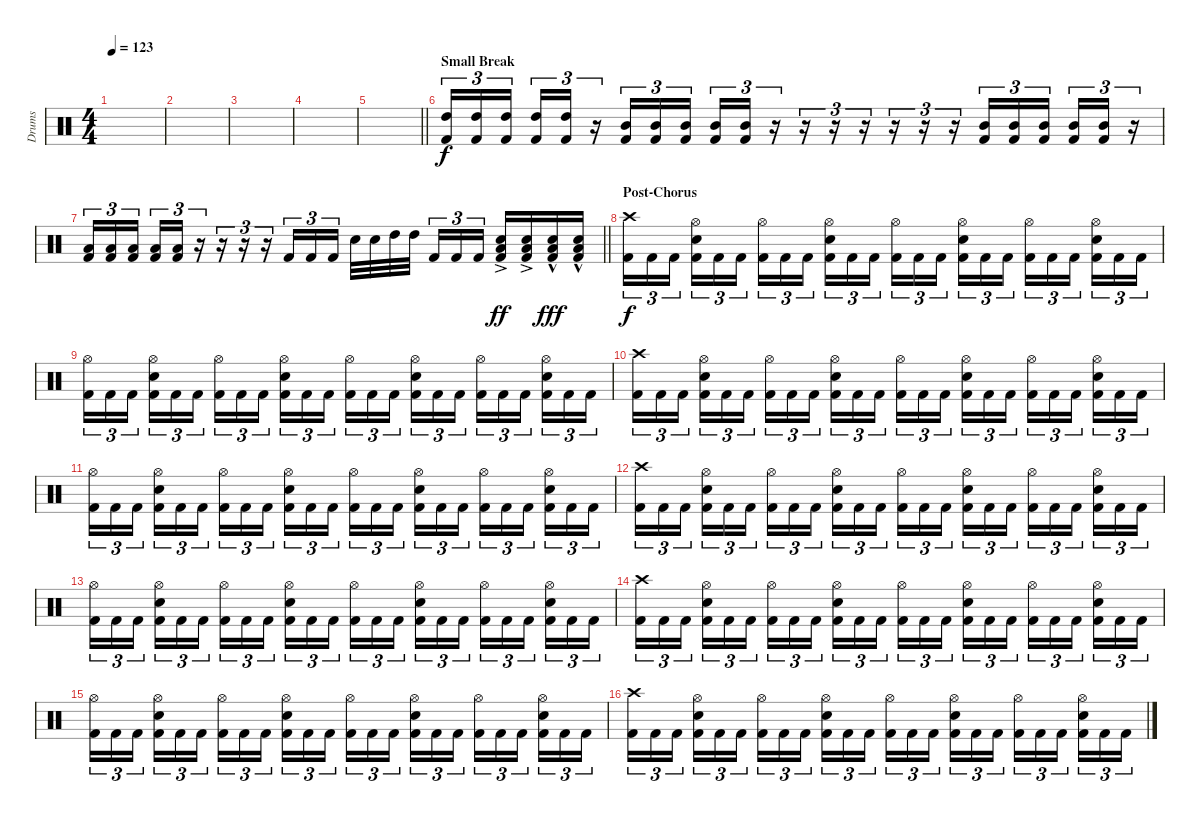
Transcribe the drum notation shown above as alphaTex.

\track ("Drums" "Drums") {instrument percussion}
\staff {score}
\articulation defaults
\ts (4 4)
\tempo 123
\clef neutral
\ks c
|
|
|
|
\barLineRight lightlight
|
\section ("" "Small Break")
("High Tom (hit)" "Kick (hit) 2").16{tu (3 2)} ("High Tom (hit)" "Kick (hit) 2").16{tu (3 2)} ("High Tom (hit)" "Kick (hit) 2").16{tu (3 2) beam splitsecondary} ("High Tom (hit)" "Kick (hit) 2").16{tu (3 2)} ("High Tom (hit)" "Kick (hit) 2").16{tu (3 2)} r.16{tu (3 2)} ("Mid Tom (hit)" "Kick (hit) 2").16{tu (3 2)} ("Mid Tom (hit)" "Kick (hit) 2").16{tu (3 2)} ("Mid Tom (hit)" "Kick (hit) 2").16{tu (3 2) beam splitsecondary} ("Mid Tom (hit)" "Kick (hit) 2").16{tu (3 2)} ("Mid Tom (hit)" "Kick (hit) 2").16{tu (3 2)} r.16{tu (3 2)} r.16{tu (3 2)} r.16{tu (3 2)} r.16{tu (3 2)} r.16{tu (3 2)} r.16{tu (3 2)} r.16{tu (3 2)} ("Mid Tom (hit)" "Kick (hit) 2").16{tu (3 2)} ("Mid Tom (hit)" "Kick (hit) 2").16{tu (3 2)} ("Mid Tom (hit)" "Kick (hit) 2").16{tu (3 2) beam splitsecondary} ("Mid Tom (hit)" "Kick (hit) 2").16{tu (3 2)} ("Mid Tom (hit)" "Kick (hit) 2").16{tu (3 2)} r.16{tu (3 2)} |
\barLineRight lightlight
("Low Tom (hit)" "Kick (hit) 2").16{tu (3 2)} ("Low Tom (hit)" "Kick (hit) 2").16{tu (3 2)} ("Low Tom (hit)" "Kick (hit) 2").16{tu (3 2) beam splitsecondary} ("Low Tom (hit)" "Kick (hit) 2").16{tu (3 2)} ("Low Tom (hit)" "Kick (hit) 2").16{tu (3 2)} r.16{tu (3 2)} r.16{tu (3 2)} r.16{tu (3 2)} r.16{tu (3 2)} "Kick (hit) 2".16{tu (3 2)} "Kick (hit) 2".16{tu (3 2)} "Kick (hit) 2".16{tu (3 2)} "Snare (hit) 2".32 "Snare (hit) 2".32 "High Tom (hit)".32 "High Tom (hit)".32{beam splitsecondary} "Kick (hit) 2".16{tu (3 2)} "Kick (hit) 2".16{tu (3 2)} "Kick (hit) 2".16{tu (3 2)} ("Low Tom (hit)"{ac} "Snare (hit) 2"{ac} "Kick (hit) 2").16{dy ff} ("Low Tom (hit)"{ac} "Snare (hit) 2"{ac} "Kick (hit) 2").16 ("Low Tom (hit)"{hac} "Snare (hit) 2"{hac} "Kick (hit) 2").16{dy fff} ("Low Tom (hit)"{hac} "Snare (hit) 2"{hac} "Kick (hit) 2").16 |
\section ("" "Post-Chorus")
("Crash high (hit)" "Kick (hit) 2").16{tu (3 2) dy f} "Kick (hit) 2".16{tu (3 2)} "Kick (hit) 2".16{tu (3 2) beam splitsecondary} ("Hi-Hat (open)" "Snare (hit) 2" "Kick (hit) 2").16{tu (3 2)} "Kick (hit) 2".16{tu (3 2)} "Kick (hit) 2".16{tu (3 2)} ("Hi-Hat (open)" "Kick (hit) 2").16{tu (3 2)} "Kick (hit) 2".16{tu (3 2)} "Kick (hit) 2".16{tu (3 2) beam splitsecondary} ("Hi-Hat (open)" "Snare (hit) 2" "Kick (hit) 2").16{tu (3 2)} "Kick (hit) 2".16{tu (3 2)} "Kick (hit) 2".16{tu (3 2)} ("Hi-Hat (open)" "Kick (hit) 2").16{tu (3 2)} "Kick (hit) 2".16{tu (3 2)} "Kick (hit) 2".16{tu (3 2) beam splitsecondary} ("Hi-Hat (open)" "Snare (hit) 2" "Kick (hit) 2").16{tu (3 2)} "Kick (hit) 2".16{tu (3 2)} "Kick (hit) 2".16{tu (3 2)} ("Hi-Hat (open)" "Kick (hit) 2").16{tu (3 2)} "Kick (hit) 2".16{tu (3 2)} "Kick (hit) 2".16{tu (3 2) beam splitsecondary} ("Hi-Hat (open)" "Snare (hit) 2" "Kick (hit) 2").16{tu (3 2)} "Kick (hit) 2".16{tu (3 2)} "Kick (hit) 2".16{tu (3 2)} |
("Hi-Hat (open)" "Kick (hit) 2").16{tu (3 2)} "Kick (hit) 2".16{tu (3 2)} "Kick (hit) 2".16{tu (3 2) beam splitsecondary} ("Hi-Hat (open)" "Snare (hit) 2" "Kick (hit) 2").16{tu (3 2)} "Kick (hit) 2".16{tu (3 2)} "Kick (hit) 2".16{tu (3 2)} ("Hi-Hat (open)" "Kick (hit) 2").16{tu (3 2)} "Kick (hit) 2".16{tu (3 2)} "Kick (hit) 2".16{tu (3 2) beam splitsecondary} ("Hi-Hat (open)" "Snare (hit) 2" "Kick (hit) 2").16{tu (3 2)} "Kick (hit) 2".16{tu (3 2)} "Kick (hit) 2".16{tu (3 2)} ("Hi-Hat (open)" "Kick (hit) 2").16{tu (3 2)} "Kick (hit) 2".16{tu (3 2)} "Kick (hit) 2".16{tu (3 2) beam splitsecondary} ("Hi-Hat (open)" "Snare (hit) 2" "Kick (hit) 2").16{tu (3 2)} "Kick (hit) 2".16{tu (3 2)} "Kick (hit) 2".16{tu (3 2)} ("Hi-Hat (open)" "Kick (hit) 2").16{tu (3 2)} "Kick (hit) 2".16{tu (3 2)} "Kick (hit) 2".16{tu (3 2) beam splitsecondary} ("Hi-Hat (open)" "Snare (hit) 2" "Kick (hit) 2").16{tu (3 2)} "Kick (hit) 2".16{tu (3 2)} "Kick (hit) 2".16{tu (3 2)} |
("Crash high (hit)" "Kick (hit) 2").16{tu (3 2)} "Kick (hit) 2".16{tu (3 2)} "Kick (hit) 2".16{tu (3 2) beam splitsecondary} ("Hi-Hat (open)" "Snare (hit) 2" "Kick (hit) 2").16{tu (3 2)} "Kick (hit) 2".16{tu (3 2)} "Kick (hit) 2".16{tu (3 2)} ("Hi-Hat (open)" "Kick (hit) 2").16{tu (3 2)} "Kick (hit) 2".16{tu (3 2)} "Kick (hit) 2".16{tu (3 2) beam splitsecondary} ("Hi-Hat (open)" "Snare (hit) 2" "Kick (hit) 2").16{tu (3 2)} "Kick (hit) 2".16{tu (3 2)} "Kick (hit) 2".16{tu (3 2)} ("Hi-Hat (open)" "Kick (hit) 2").16{tu (3 2)} "Kick (hit) 2".16{tu (3 2)} "Kick (hit) 2".16{tu (3 2) beam splitsecondary} ("Hi-Hat (open)" "Snare (hit) 2" "Kick (hit) 2").16{tu (3 2)} "Kick (hit) 2".16{tu (3 2)} "Kick (hit) 2".16{tu (3 2)} ("Hi-Hat (open)" "Kick (hit) 2").16{tu (3 2)} "Kick (hit) 2".16{tu (3 2)} "Kick (hit) 2".16{tu (3 2) beam splitsecondary} ("Hi-Hat (open)" "Snare (hit) 2" "Kick (hit) 2").16{tu (3 2)} "Kick (hit) 2".16{tu (3 2)} "Kick (hit) 2".16{tu (3 2)} |
("Hi-Hat (open)" "Kick (hit) 2").16{tu (3 2)} "Kick (hit) 2".16{tu (3 2)} "Kick (hit) 2".16{tu (3 2) beam splitsecondary} ("Hi-Hat (open)" "Snare (hit) 2" "Kick (hit) 2").16{tu (3 2)} "Kick (hit) 2".16{tu (3 2)} "Kick (hit) 2".16{tu (3 2)} ("Hi-Hat (open)" "Kick (hit) 2").16{tu (3 2)} "Kick (hit) 2".16{tu (3 2)} "Kick (hit) 2".16{tu (3 2) beam splitsecondary} ("Hi-Hat (open)" "Snare (hit) 2" "Kick (hit) 2").16{tu (3 2)} "Kick (hit) 2".16{tu (3 2)} "Kick (hit) 2".16{tu (3 2)} ("Hi-Hat (open)" "Kick (hit) 2").16{tu (3 2)} "Kick (hit) 2".16{tu (3 2)} "Kick (hit) 2".16{tu (3 2) beam splitsecondary} ("Hi-Hat (open)" "Snare (hit) 2" "Kick (hit) 2").16{tu (3 2)} "Kick (hit) 2".16{tu (3 2)} "Kick (hit) 2".16{tu (3 2)} ("Hi-Hat (open)" "Kick (hit) 2").16{tu (3 2)} "Kick (hit) 2".16{tu (3 2)} "Kick (hit) 2".16{tu (3 2) beam splitsecondary} ("Hi-Hat (open)" "Snare (hit) 2" "Kick (hit) 2").16{tu (3 2)} "Kick (hit) 2".16{tu (3 2)} "Kick (hit) 2".16{tu (3 2)} |
("Crash high (hit)" "Kick (hit) 2").16{tu (3 2)} "Kick (hit) 2".16{tu (3 2)} "Kick (hit) 2".16{tu (3 2) beam splitsecondary} ("Hi-Hat (open)" "Snare (hit) 2" "Kick (hit) 2").16{tu (3 2)} "Kick (hit) 2".16{tu (3 2)} "Kick (hit) 2".16{tu (3 2)} ("Hi-Hat (open)" "Kick (hit) 2").16{tu (3 2)} "Kick (hit) 2".16{tu (3 2)} "Kick (hit) 2".16{tu (3 2) beam splitsecondary} ("Hi-Hat (open)" "Snare (hit) 2" "Kick (hit) 2").16{tu (3 2)} "Kick (hit) 2".16{tu (3 2)} "Kick (hit) 2".16{tu (3 2)} ("Hi-Hat (open)" "Kick (hit) 2").16{tu (3 2)} "Kick (hit) 2".16{tu (3 2)} "Kick (hit) 2".16{tu (3 2) beam splitsecondary} ("Hi-Hat (open)" "Snare (hit) 2" "Kick (hit) 2").16{tu (3 2)} "Kick (hit) 2".16{tu (3 2)} "Kick (hit) 2".16{tu (3 2)} ("Hi-Hat (open)" "Kick (hit) 2").16{tu (3 2)} "Kick (hit) 2".16{tu (3 2)} "Kick (hit) 2".16{tu (3 2) beam splitsecondary} ("Hi-Hat (open)" "Snare (hit) 2" "Kick (hit) 2").16{tu (3 2)} "Kick (hit) 2".16{tu (3 2)} "Kick (hit) 2".16{tu (3 2)} |
("Hi-Hat (open)" "Kick (hit) 2").16{tu (3 2)} "Kick (hit) 2".16{tu (3 2)} "Kick (hit) 2".16{tu (3 2) beam splitsecondary} ("Hi-Hat (open)" "Snare (hit) 2" "Kick (hit) 2").16{tu (3 2)} "Kick (hit) 2".16{tu (3 2)} "Kick (hit) 2".16{tu (3 2)} ("Hi-Hat (open)" "Kick (hit) 2").16{tu (3 2)} "Kick (hit) 2".16{tu (3 2)} "Kick (hit) 2".16{tu (3 2) beam splitsecondary} ("Hi-Hat (open)" "Snare (hit) 2" "Kick (hit) 2").16{tu (3 2)} "Kick (hit) 2".16{tu (3 2)} "Kick (hit) 2".16{tu (3 2)} ("Hi-Hat (open)" "Kick (hit) 2").16{tu (3 2)} "Kick (hit) 2".16{tu (3 2)} "Kick (hit) 2".16{tu (3 2) beam splitsecondary} ("Hi-Hat (open)" "Snare (hit) 2" "Kick (hit) 2").16{tu (3 2)} "Kick (hit) 2".16{tu (3 2)} "Kick (hit) 2".16{tu (3 2)} ("Hi-Hat (open)" "Kick (hit) 2").16{tu (3 2)} "Kick (hit) 2".16{tu (3 2)} "Kick (hit) 2".16{tu (3 2) beam splitsecondary} ("Hi-Hat (open)" "Snare (hit) 2" "Kick (hit) 2").16{tu (3 2)} "Kick (hit) 2".16{tu (3 2)} "Kick (hit) 2".16{tu (3 2)} |
("Crash high (hit)" "Kick (hit) 2").16{tu (3 2)} "Kick (hit) 2".16{tu (3 2)} "Kick (hit) 2".16{tu (3 2) beam splitsecondary} ("Hi-Hat (open)" "Snare (hit) 2" "Kick (hit) 2").16{tu (3 2)} "Kick (hit) 2".16{tu (3 2)} "Kick (hit) 2".16{tu (3 2)} ("Hi-Hat (open)" "Kick (hit) 2").16{tu (3 2)} "Kick (hit) 2".16{tu (3 2)} "Kick (hit) 2".16{tu (3 2) beam splitsecondary} ("Hi-Hat (open)" "Snare (hit) 2" "Kick (hit) 2").16{tu (3 2)} "Kick (hit) 2".16{tu (3 2)} "Kick (hit) 2".16{tu (3 2)} ("Hi-Hat (open)" "Kick (hit) 2").16{tu (3 2)} "Kick (hit) 2".16{tu (3 2)} "Kick (hit) 2".16{tu (3 2) beam splitsecondary} ("Hi-Hat (open)" "Snare (hit) 2" "Kick (hit) 2").16{tu (3 2)} "Kick (hit) 2".16{tu (3 2)} "Kick (hit) 2".16{tu (3 2)} ("Hi-Hat (open)" "Kick (hit) 2").16{tu (3 2)} "Kick (hit) 2".16{tu (3 2)} "Kick (hit) 2".16{tu (3 2) beam splitsecondary} ("Hi-Hat (open)" "Snare (hit) 2" "Kick (hit) 2").16{tu (3 2)} "Kick (hit) 2".16{tu (3 2)} "Kick (hit) 2".16{tu (3 2)} |
("Hi-Hat (open)" "Kick (hit) 2").16{tu (3 2)} "Kick (hit) 2".16{tu (3 2)} "Kick (hit) 2".16{tu (3 2) beam splitsecondary} ("Hi-Hat (open)" "Snare (hit) 2" "Kick (hit) 2").16{tu (3 2)} "Kick (hit) 2".16{tu (3 2)} "Kick (hit) 2".16{tu (3 2)} ("Hi-Hat (open)" "Kick (hit) 2").16{tu (3 2)} "Kick (hit) 2".16{tu (3 2)} "Kick (hit) 2".16{tu (3 2) beam splitsecondary} ("Hi-Hat (open)" "Snare (hit) 2" "Kick (hit) 2").16{tu (3 2)} "Kick (hit) 2".16{tu (3 2)} "Kick (hit) 2".16{tu (3 2)} ("Hi-Hat (open)" "Kick (hit) 2").16{tu (3 2)} "Kick (hit) 2".16{tu (3 2)} "Kick (hit) 2".16{tu (3 2) beam splitsecondary} ("Hi-Hat (open)" "Snare (hit) 2" "Kick (hit) 2").16{tu (3 2)} "Kick (hit) 2".16{tu (3 2)} "Kick (hit) 2".16{tu (3 2)} ("Hi-Hat (open)" "Kick (hit) 2").16{tu (3 2)} "Kick (hit) 2".16{tu (3 2)} "Kick (hit) 2".16{tu (3 2) beam splitsecondary} ("Hi-Hat (open)" "Snare (hit) 2" "Kick (hit) 2").16{tu (3 2)} "Kick (hit) 2".16{tu (3 2)} "Kick (hit) 2".16{tu (3 2)} |
("Crash high (hit)" "Kick (hit) 2").16{tu (3 2)} "Kick (hit) 2".16{tu (3 2)} "Kick (hit) 2".16{tu (3 2) beam splitsecondary} ("Hi-Hat (open)" "Snare (hit) 2" "Kick (hit) 2").16{tu (3 2)} "Kick (hit) 2".16{tu (3 2)} "Kick (hit) 2".16{tu (3 2)} ("Hi-Hat (open)" "Kick (hit) 2").16{tu (3 2)} "Kick (hit) 2".16{tu (3 2)} "Kick (hit) 2".16{tu (3 2) beam splitsecondary} ("Hi-Hat (open)" "Snare (hit) 2" "Kick (hit) 2").16{tu (3 2)} "Kick (hit) 2".16{tu (3 2)} "Kick (hit) 2".16{tu (3 2)} ("Hi-Hat (open)" "Kick (hit) 2").16{tu (3 2)} "Kick (hit) 2".16{tu (3 2)} "Kick (hit) 2".16{tu (3 2) beam splitsecondary} ("Hi-Hat (open)" "Snare (hit) 2" "Kick (hit) 2").16{tu (3 2)} "Kick (hit) 2".16{tu (3 2)} "Kick (hit) 2".16{tu (3 2)} ("Hi-Hat (open)" "Kick (hit) 2").16{tu (3 2)} "Kick (hit) 2".16{tu (3 2)} "Kick (hit) 2".16{tu (3 2) beam splitsecondary} ("Hi-Hat (open)" "Snare (hit) 2" "Kick (hit) 2").16{tu (3 2)} "Kick (hit) 2".16{tu (3 2)} "Kick (hit) 2".16{tu (3 2)}
